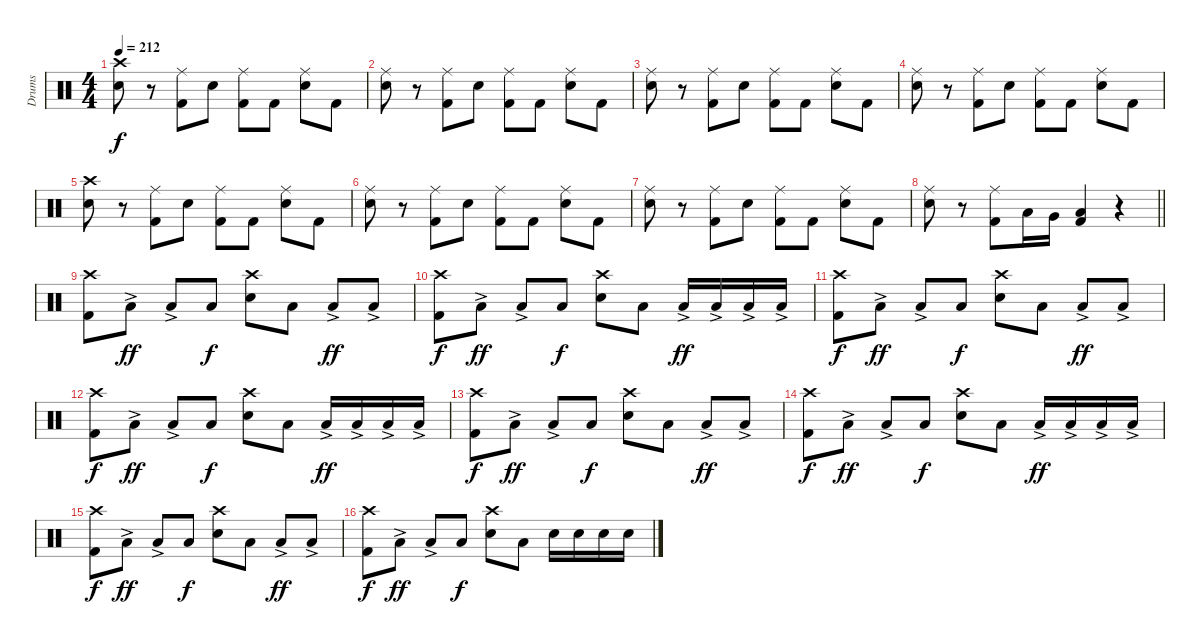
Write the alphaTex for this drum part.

\track ("Drums" "Drums") {instrument percussion}
\staff {score}
\articulation defaults
\ts (4 4)
\tempo 212
\clef neutral
\ks c
("Crash high (hit)" "Snare (hit) 2").8{dy f} r.8 ("Ride (middle)" "Kick (hit) 2").8 "Snare (hit) 2".8 ("Ride (middle)" "Kick (hit) 2").8 "Kick (hit) 2".8 ("Ride (middle)" "Snare (hit) 2").8 "Kick (hit) 2".8 |
("Ride (middle)" "Snare (hit) 2").8 r.8 ("Ride (middle)" "Kick (hit) 2").8 "Snare (hit) 2".8 ("Ride (middle)" "Kick (hit) 2").8 "Kick (hit) 2".8 ("Ride (middle)" "Snare (hit) 2").8 "Kick (hit) 2".8 |
("Ride (middle)" "Snare (hit) 2").8 r.8 ("Ride (middle)" "Kick (hit) 2").8 "Snare (hit) 2".8 ("Ride (middle)" "Kick (hit) 2").8 "Kick (hit) 2".8 ("Ride (middle)" "Snare (hit) 2").8 "Kick (hit) 2".8 |
("Ride (middle)" "Snare (hit) 2").8 r.8 ("Ride (middle)" "Kick (hit) 2").8 "Snare (hit) 2".8 ("Ride (middle)" "Kick (hit) 2").8 "Kick (hit) 2".8 ("Ride (middle)" "Snare (hit) 2").8 "Kick (hit) 2".8 |
("Crash high (hit)" "Snare (hit) 2").8 r.8 ("Ride (middle)" "Kick (hit) 2").8 "Snare (hit) 2".8 ("Ride (middle)" "Kick (hit) 2").8 "Kick (hit) 2".8 ("Ride (middle)" "Snare (hit) 2").8 "Kick (hit) 2".8 |
("Ride (middle)" "Snare (hit) 2").8 r.8 ("Ride (middle)" "Kick (hit) 2").8 "Snare (hit) 2".8 ("Ride (middle)" "Kick (hit) 2").8 "Kick (hit) 2".8 ("Ride (middle)" "Snare (hit) 2").8 "Kick (hit) 2".8 |
("Ride (middle)" "Snare (hit) 2").8 r.8 ("Ride (middle)" "Kick (hit) 2").8 "Snare (hit) 2".8 ("Ride (middle)" "Kick (hit) 2").8 "Kick (hit) 2".8 ("Ride (middle)" "Snare (hit) 2").8 "Kick (hit) 2".8 |
\barLineRight lightlight
("Ride (middle)" "Snare (hit) 2").8 r.8 ("Ride (middle)" "Kick (hit) 2").8 "Low Tom (hit)".16 "Very Low Tom (hit)".16 ("Low Floor Tom (hit)" "Kick (hit) 2").4 r.4 |
("Crash high (hit)" "Kick (hit) 2").8 "Low Floor Tom (hit)"{ac}.8{dy ff} "Low Floor Tom (hit)"{ac}.8 "Low Floor Tom (hit)".8{dy f} ("Crash high (hit)" "Snare (hit) 2").8 "Low Floor Tom (hit)".8 "Low Floor Tom (hit)"{ac}.8{dy ff} "Low Floor Tom (hit)"{ac}.8 |
("Crash high (hit)" "Kick (hit) 2").8{dy f} "Low Floor Tom (hit)"{ac}.8{dy ff} "Low Floor Tom (hit)"{ac}.8 "Low Floor Tom (hit)".8{dy f} ("Crash high (hit)" "Snare (hit) 2").8 "Low Floor Tom (hit)".8 "Low Floor Tom (hit)"{ac}.16{dy ff} "Low Floor Tom (hit)"{ac}.16 "Low Floor Tom (hit)"{ac}.16 "Low Floor Tom (hit)"{ac}.16 |
("Crash high (hit)" "Kick (hit) 2").8{dy f} "Low Floor Tom (hit)"{ac}.8{dy ff} "Low Floor Tom (hit)"{ac}.8 "Low Floor Tom (hit)".8{dy f} ("Crash high (hit)" "Snare (hit) 2").8 "Low Floor Tom (hit)".8 "Low Floor Tom (hit)"{ac}.8{dy ff} "Low Floor Tom (hit)"{ac}.8 |
("Crash high (hit)" "Kick (hit) 2").8{dy f} "Low Floor Tom (hit)"{ac}.8{dy ff} "Low Floor Tom (hit)"{ac}.8 "Low Floor Tom (hit)".8{dy f} ("Crash high (hit)" "Snare (hit) 2").8 "Low Floor Tom (hit)".8 "Low Floor Tom (hit)"{ac}.16{dy ff} "Low Floor Tom (hit)"{ac}.16 "Low Floor Tom (hit)"{ac}.16 "Low Floor Tom (hit)"{ac}.16 |
("Crash high (hit)" "Kick (hit) 2").8{dy f} "Low Floor Tom (hit)"{ac}.8{dy ff} "Low Floor Tom (hit)"{ac}.8 "Low Floor Tom (hit)".8{dy f} ("Crash high (hit)" "Snare (hit) 2").8 "Low Floor Tom (hit)".8 "Low Floor Tom (hit)"{ac}.8{dy ff} "Low Floor Tom (hit)"{ac}.8 |
("Crash high (hit)" "Kick (hit) 2").8{dy f} "Low Floor Tom (hit)"{ac}.8{dy ff} "Low Floor Tom (hit)"{ac}.8 "Low Floor Tom (hit)".8{dy f} ("Crash high (hit)" "Snare (hit) 2").8 "Low Floor Tom (hit)".8 "Low Floor Tom (hit)"{ac}.16{dy ff} "Low Floor Tom (hit)"{ac}.16 "Low Floor Tom (hit)"{ac}.16 "Low Floor Tom (hit)"{ac}.16 |
("Crash high (hit)" "Kick (hit) 2").8{dy f} "Low Floor Tom (hit)"{ac}.8{dy ff} "Low Floor Tom (hit)"{ac}.8 "Low Floor Tom (hit)".8{dy f} ("Crash high (hit)" "Snare (hit) 2").8 "Low Floor Tom (hit)".8 "Low Floor Tom (hit)"{ac}.8{dy ff} "Low Floor Tom (hit)"{ac}.8 |
("Crash high (hit)" "Kick (hit) 2").8{dy f} "Low Floor Tom (hit)"{ac}.8{dy ff} "Low Floor Tom (hit)"{ac}.8 "Low Floor Tom (hit)".8{dy f} ("Crash high (hit)" "Snare (hit) 2").8 "Low Floor Tom (hit)".8 "Snare (hit) 2".16 "Snare (hit) 2".16 "Snare (hit) 2".16 "Snare (hit) 2".16
